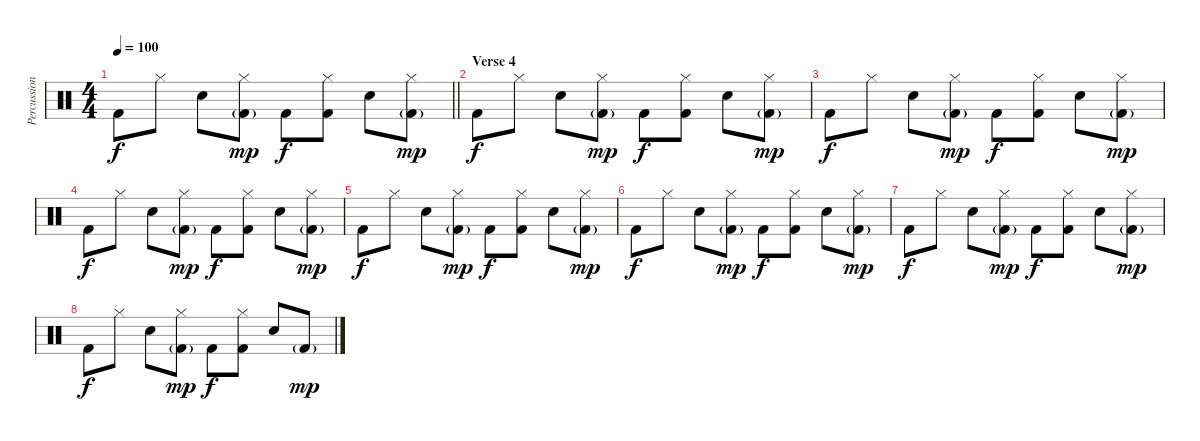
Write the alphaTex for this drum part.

\track ("Percussion" "Percussion") {instrument percussion}
\staff {score}
\articulation defaults
\ts (4 4)
\tempo 100
\clef neutral
\barLineRight lightlight
\ks c "Kick (hit) 2".8{dy f} "Hi-Hat (closed)".8 "Snare (hit) 2".8
("Hi-Hat (closed)" "Kick (hit) 2"{g}).8{dy mp} "Kick (hit) 2".8{dy f} ("Hi-Hat (closed)" "Kick (hit) 2").8 "Snare (hit) 2".8 ("Hi-Hat (closed)" "Kick (hit) 2"{g}).8{dy mp} |
\section ("" "Verse 4")
"Kick (hit) 2".8{dy f} "Hi-Hat (closed)".8 "Snare (hit) 2".8 ("Hi-Hat (closed)" "Kick (hit) 2"{g}).8{dy mp} "Kick (hit) 2".8{dy f} ("Hi-Hat (closed)" "Kick (hit) 2").8 "Snare (hit) 2".8 ("Hi-Hat (closed)" "Kick (hit) 2"{g}).8{dy mp} |
"Kick (hit) 2".8{dy f} "Hi-Hat (closed)".8 "Snare (hit) 2".8 ("Hi-Hat (closed)" "Kick (hit) 2"{g}).8{dy mp} "Kick (hit) 2".8{dy f} ("Hi-Hat (closed)" "Kick (hit) 2").8 "Snare (hit) 2".8 ("Hi-Hat (closed)" "Kick (hit) 2"{g}).8{dy mp} |
"Kick (hit) 2".8{dy f} "Hi-Hat (closed)".8 "Snare (hit) 2".8 ("Hi-Hat (closed)" "Kick (hit) 2"{g}).8{dy mp} "Kick (hit) 2".8{dy f} ("Hi-Hat (closed)" "Kick (hit) 2").8 "Snare (hit) 2".8 ("Hi-Hat (closed)" "Kick (hit) 2"{g}).8{dy mp} |
"Kick (hit) 2".8{dy f} "Hi-Hat (closed)".8 "Snare (hit) 2".8 ("Hi-Hat (closed)" "Kick (hit) 2"{g}).8{dy mp} "Kick (hit) 2".8{dy f} ("Hi-Hat (closed)" "Kick (hit) 2").8 "Snare (hit) 2".8 ("Hi-Hat (closed)" "Kick (hit) 2"{g}).8{dy mp} |
"Kick (hit) 2".8{dy f} "Hi-Hat (closed)".8 "Snare (hit) 2".8 ("Hi-Hat (closed)" "Kick (hit) 2"{g}).8{dy mp} "Kick (hit) 2".8{dy f} ("Hi-Hat (closed)" "Kick (hit) 2").8 "Snare (hit) 2".8 ("Hi-Hat (closed)" "Kick (hit) 2"{g}).8{dy mp} |
"Kick (hit) 2".8{dy f} "Hi-Hat (closed)".8 "Snare (hit) 2".8 ("Hi-Hat (closed)" "Kick (hit) 2"{g}).8{dy mp} "Kick (hit) 2".8{dy f} ("Hi-Hat (closed)" "Kick (hit) 2").8 "Snare (hit) 2".8 ("Hi-Hat (closed)" "Kick (hit) 2"{g}).8{dy mp} |
"Kick (hit) 2".8{dy f} "Hi-Hat (closed)".8 "Snare (hit) 2".8 ("Hi-Hat (closed)" "Kick (hit) 2"{g}).8{dy mp} "Kick (hit) 2".8{dy f} ("Hi-Hat (closed)" "Kick (hit) 2").8 "Snare (hit) 2".8 "Kick (hit) 2"{g}.8{dy mp}
